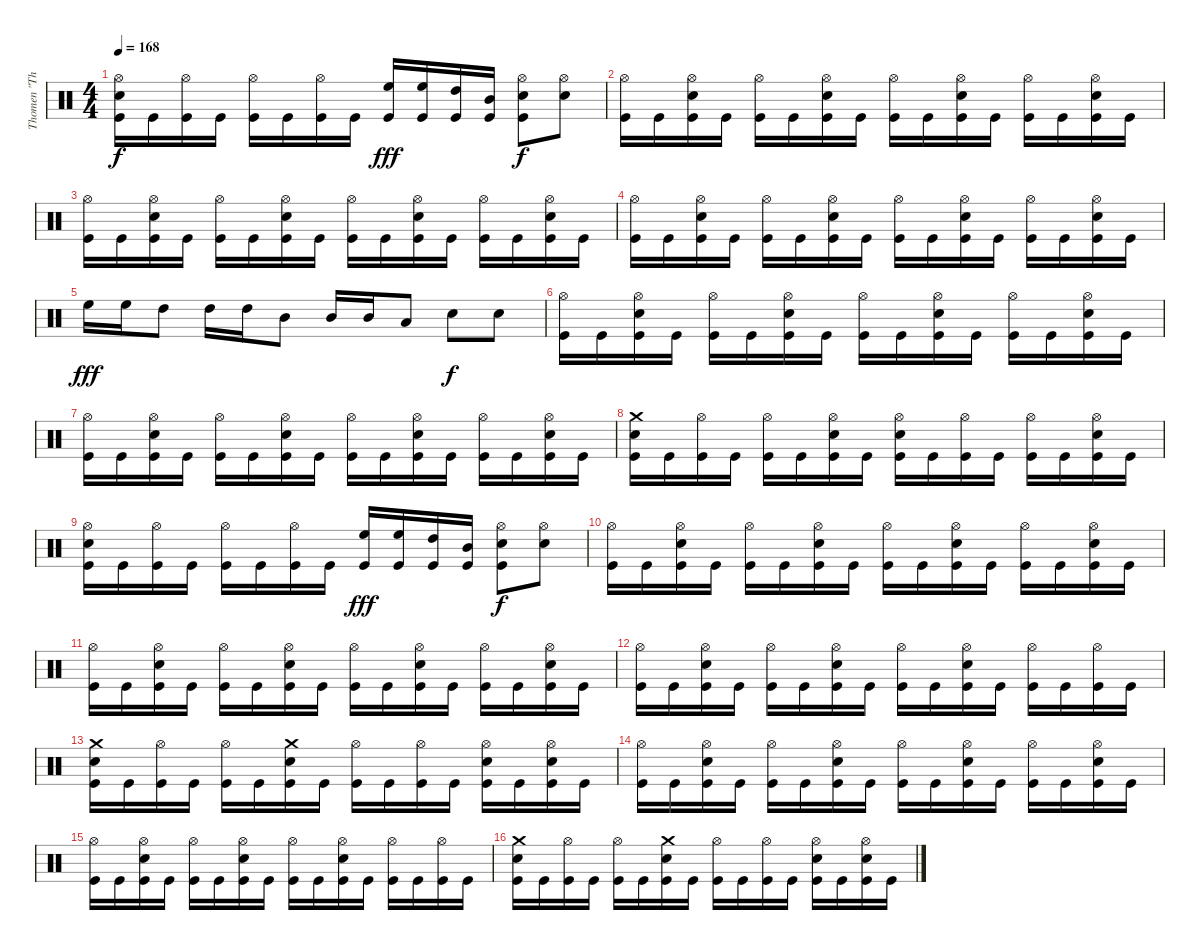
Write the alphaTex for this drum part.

\track ("Thomen \"The Omen\" Stauch" "Thomen \"Th") {instrument percussion}
\staff {score}
\articulation defaults
\ts (4 4)
\tempo 168
\clef neutral
\ks c
("Hi-Hat (open)" "Snare (hit) 2" "Kick (hit)").16{dy f} "Kick (hit)".16 ("Hi-Hat (open)" "Kick (hit)").16 "Kick (hit)".16 ("Hi-Hat (open)" "Kick (hit)").16 "Kick (hit)".16 ("Hi-Hat (open)" "Kick (hit)").16 "Kick (hit)".16 ("High Floor Tom (hit)" "Kick (hit)").16{dy fff} ("High Floor Tom (hit)" "Kick (hit)").16 ("High Tom (hit)" "Kick (hit)").16 ("Mid Tom (hit)" "Kick (hit)").16 ("Hi-Hat (open)" "Snare (hit) 2" "Kick (hit)").8{dy f} ("Hi-Hat (open)" "Snare (hit) 2").8 |
("Hi-Hat (open)" "Kick (hit)").16 "Kick (hit)".16 ("Hi-Hat (open)" "Snare (hit) 2" "Kick (hit)").16 "Kick (hit)".16 ("Hi-Hat (open)" "Kick (hit)").16 "Kick (hit)".16 ("Hi-Hat (open)" "Snare (hit) 2" "Kick (hit)").16 "Kick (hit)".16 ("Hi-Hat (open)" "Kick (hit)").16 "Kick (hit)".16 ("Hi-Hat (open)" "Snare (hit) 2" "Kick (hit)").16 "Kick (hit)".16 ("Hi-Hat (open)" "Kick (hit)").16 "Kick (hit)".16 ("Hi-Hat (open)" "Snare (hit) 2" "Kick (hit)").16 "Kick (hit)".16 |
("Hi-Hat (open)" "Kick (hit)").16 "Kick (hit)".16 ("Hi-Hat (open)" "Snare (hit) 2" "Kick (hit)").16 "Kick (hit)".16 ("Hi-Hat (open)" "Kick (hit)").16 "Kick (hit)".16 ("Hi-Hat (open)" "Snare (hit) 2" "Kick (hit)").16 "Kick (hit)".16 ("Hi-Hat (open)" "Kick (hit)").16 "Kick (hit)".16 ("Hi-Hat (open)" "Snare (hit) 2" "Kick (hit)").16 "Kick (hit)".16 ("Hi-Hat (open)" "Kick (hit)").16 "Kick (hit)".16 ("Hi-Hat (open)" "Snare (hit) 2" "Kick (hit)").16 "Kick (hit)".16 |
("Hi-Hat (open)" "Kick (hit)").16 "Kick (hit)".16 ("Hi-Hat (open)" "Snare (hit) 2" "Kick (hit)").16 "Kick (hit)".16 ("Hi-Hat (open)" "Kick (hit)").16 "Kick (hit)".16 ("Hi-Hat (open)" "Snare (hit) 2" "Kick (hit)").16 "Kick (hit)".16 ("Hi-Hat (open)" "Kick (hit)").16 "Kick (hit)".16 ("Hi-Hat (open)" "Snare (hit) 2" "Kick (hit)").16 "Kick (hit)".16 ("Hi-Hat (open)" "Kick (hit)").16 "Kick (hit)".16 ("Hi-Hat (open)" "Snare (hit) 2" "Kick (hit)").16 "Kick (hit)".16 |
"High Floor Tom (hit)".16{dy fff} "High Floor Tom (hit)".16 "High Tom (hit)".8 "High Tom (hit)".16 "High Tom (hit)".16 "Mid Tom (hit)".8 "Mid Tom (hit)".16 "Mid Tom (hit)".16 "Low Tom (hit)".8 "Snare (hit) 2".8{dy f} "Snare (hit) 2".8 |
("Hi-Hat (open)" "Kick (hit)").16 "Kick (hit)".16 ("Hi-Hat (open)" "Snare (hit) 2" "Kick (hit)").16 "Kick (hit)".16 ("Hi-Hat (open)" "Kick (hit)").16 "Kick (hit)".16 ("Hi-Hat (open)" "Snare (hit) 2" "Kick (hit)").16 "Kick (hit)".16 ("Hi-Hat (open)" "Kick (hit)").16 "Kick (hit)".16 ("Hi-Hat (open)" "Snare (hit) 2" "Kick (hit)").16 "Kick (hit)".16 ("Hi-Hat (open)" "Kick (hit)").16 "Kick (hit)".16 ("Hi-Hat (open)" "Snare (hit) 2" "Kick (hit)").16 "Kick (hit)".16 |
("Hi-Hat (open)" "Kick (hit)").16 "Kick (hit)".16 ("Hi-Hat (open)" "Snare (hit) 2" "Kick (hit)").16 "Kick (hit)".16 ("Hi-Hat (open)" "Kick (hit)").16 "Kick (hit)".16 ("Hi-Hat (open)" "Snare (hit) 2" "Kick (hit)").16 "Kick (hit)".16 ("Hi-Hat (open)" "Kick (hit)").16 "Kick (hit)".16 ("Hi-Hat (open)" "Snare (hit) 2" "Kick (hit)").16 "Kick (hit)".16 ("Hi-Hat (open)" "Kick (hit)").16 "Kick (hit)".16 ("Hi-Hat (open)" "Snare (hit) 2" "Kick (hit)").16 "Kick (hit)".16 |
("Crash medium (hit)" "Snare (hit) 2" "Kick (hit)").16 "Kick (hit)".16 ("Hi-Hat (open)" "Kick (hit)").16 "Kick (hit)".16 ("Hi-Hat (open)" "Kick (hit)").16 "Kick (hit)".16 ("Hi-Hat (open)" "Snare (hit) 2" "Kick (hit)").16 "Kick (hit)".16 ("Hi-Hat (open)" "Snare (hit) 2" "Kick (hit)").16 "Kick (hit)".16 ("Hi-Hat (open)" "Kick (hit)").16 "Kick (hit)".16 ("Hi-Hat (open)" "Kick (hit)").16 "Kick (hit)".16 ("Hi-Hat (open)" "Snare (hit) 2" "Kick (hit)").16 "Kick (hit)".16 |
("Hi-Hat (open)" "Snare (hit) 2" "Kick (hit)").16 "Kick (hit)".16 ("Hi-Hat (open)" "Kick (hit)").16 "Kick (hit)".16 ("Hi-Hat (open)" "Kick (hit)").16 "Kick (hit)".16 ("Hi-Hat (open)" "Kick (hit)").16 "Kick (hit)".16 ("High Floor Tom (hit)" "Kick (hit)").16{dy fff} ("High Floor Tom (hit)" "Kick (hit)").16 ("High Tom (hit)" "Kick (hit)").16 ("Mid Tom (hit)" "Kick (hit)").16 ("Hi-Hat (open)" "Snare (hit) 2" "Kick (hit)").8{dy f} ("Hi-Hat (open)" "Snare (hit) 2").8 |
("Hi-Hat (open)" "Kick (hit)").16 "Kick (hit)".16 ("Hi-Hat (open)" "Snare (hit) 2" "Kick (hit)").16 "Kick (hit)".16 ("Hi-Hat (open)" "Kick (hit)").16 "Kick (hit)".16 ("Hi-Hat (open)" "Snare (hit) 2" "Kick (hit)").16 "Kick (hit)".16 ("Hi-Hat (open)" "Kick (hit)").16 "Kick (hit)".16 ("Hi-Hat (open)" "Snare (hit) 2" "Kick (hit)").16 "Kick (hit)".16 ("Hi-Hat (open)" "Kick (hit)").16 "Kick (hit)".16 ("Hi-Hat (open)" "Snare (hit) 2" "Kick (hit)").16 "Kick (hit)".16 |
("Hi-Hat (open)" "Kick (hit)").16 "Kick (hit)".16 ("Hi-Hat (open)" "Snare (hit) 2" "Kick (hit)").16 "Kick (hit)".16 ("Hi-Hat (open)" "Kick (hit)").16 "Kick (hit)".16 ("Hi-Hat (open)" "Snare (hit) 2" "Kick (hit)").16 "Kick (hit)".16 ("Hi-Hat (open)" "Kick (hit)").16 "Kick (hit)".16 ("Hi-Hat (open)" "Snare (hit) 2" "Kick (hit)").16 "Kick (hit)".16 ("Hi-Hat (open)" "Kick (hit)").16 "Kick (hit)".16 ("Hi-Hat (open)" "Snare (hit) 2" "Kick (hit)").16 "Kick (hit)".16 |
("Hi-Hat (open)" "Kick (hit)").16 "Kick (hit)".16 ("Hi-Hat (open)" "Snare (hit) 2" "Kick (hit)").16 "Kick (hit)".16 ("Hi-Hat (open)" "Kick (hit)").16 "Kick (hit)".16 ("Hi-Hat (open)" "Snare (hit) 2" "Kick (hit)").16 "Kick (hit)".16 ("Hi-Hat (open)" "Kick (hit)").16 "Kick (hit)".16 ("Hi-Hat (open)" "Snare (hit) 2" "Kick (hit)").16 "Kick (hit)".16 ("Hi-Hat (open)" "Kick (hit)").16 "Kick (hit)".16 ("Hi-Hat (open)" "Kick (hit)").16 "Kick (hit)".16 |
("Crash medium (hit)" "Snare (hit) 2" "Kick (hit)").16 "Kick (hit)".16 ("Hi-Hat (open)" "Kick (hit)").16 "Kick (hit)".16 ("Hi-Hat (open)" "Kick (hit)").16 "Kick (hit)".16 ("Crash medium (hit)" "Snare (hit) 2" "Kick (hit)").16 "Kick (hit)".16 ("Hi-Hat (open)" "Kick (hit)").16 "Kick (hit)".16 ("Hi-Hat (open)" "Kick (hit)").16 "Kick (hit)".16 ("Snare (hit) 2" "Hi-Hat (open)" "Kick (hit)").16 "Kick (hit)".16 ("Snare (hit) 2" "Hi-Hat (open)" "Kick (hit)").16 "Kick (hit)".16 |
("Hi-Hat (open)" "Kick (hit)").16 "Kick (hit)".16 ("Hi-Hat (open)" "Snare (hit) 2" "Kick (hit)").16 "Kick (hit)".16 ("Hi-Hat (open)" "Kick (hit)").16 "Kick (hit)".16 ("Hi-Hat (open)" "Snare (hit) 2" "Kick (hit)").16 "Kick (hit)".16 ("Hi-Hat (open)" "Kick (hit)").16 "Kick (hit)".16 ("Hi-Hat (open)" "Snare (hit) 2" "Kick (hit)").16 "Kick (hit)".16 ("Hi-Hat (open)" "Kick (hit)").16 "Kick (hit)".16 ("Hi-Hat (open)" "Snare (hit) 2" "Kick (hit)").16 "Kick (hit)".16 |
("Hi-Hat (open)" "Kick (hit)").16 "Kick (hit)".16 ("Hi-Hat (open)" "Snare (hit) 2" "Kick (hit)").16 "Kick (hit)".16 ("Hi-Hat (open)" "Kick (hit)").16 "Kick (hit)".16 ("Hi-Hat (open)" "Snare (hit) 2" "Kick (hit)").16 "Kick (hit)".16 ("Hi-Hat (open)" "Kick (hit)").16 "Kick (hit)".16 ("Hi-Hat (open)" "Snare (hit) 2" "Kick (hit)").16 "Kick (hit)".16 ("Hi-Hat (open)" "Kick (hit)").16 "Kick (hit)".16 ("Hi-Hat (open)" "Kick (hit)").16 "Kick (hit)".16 |
("Crash medium (hit)" "Snare (hit) 2" "Kick (hit)").16 "Kick (hit)".16 ("Hi-Hat (open)" "Kick (hit)").16 "Kick (hit)".16 ("Hi-Hat (open)" "Kick (hit)").16 "Kick (hit)".16 ("Crash medium (hit)" "Snare (hit) 2" "Kick (hit)").16 "Kick (hit)".16 ("Hi-Hat (open)" "Kick (hit)").16 "Kick (hit)".16 ("Hi-Hat (open)" "Kick (hit)").16 "Kick (hit)".16 ("Snare (hit) 2" "Hi-Hat (open)" "Kick (hit)").16 "Kick (hit)".16 ("Snare (hit) 2" "Hi-Hat (open)" "Kick (hit)").16 "Kick (hit)".16
